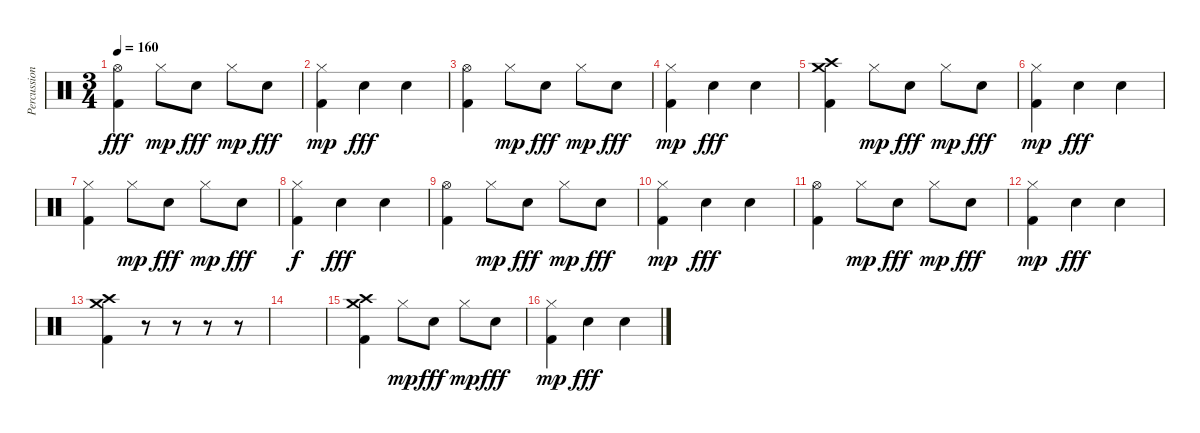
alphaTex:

\track ("Percussion" "Percussion") {solo instrument percussion}
\staff {score}
\articulation defaults
\ts (3 4)
\tempo 160
\clef neutral
\ks c
("Hi-Hat (open)" "Kick (hit) 2").4{dy fff} "Hi-Hat (closed)".8{dy mp} "Electric Snare (hit)".8{dy fff} "Hi-Hat (closed)".8{dy mp} "Electric Snare (hit)".8{dy fff} |
("Hi-Hat (closed)" "Kick (hit) 2").4{dy mp} "Electric Snare (hit)".4{dy fff} "Electric Snare (hit)".4 |
("Hi-Hat (open)" "Kick (hit) 2").4 "Hi-Hat (closed)".8{dy mp} "Electric Snare (hit)".8{dy fff} "Hi-Hat (closed)".8{dy mp} "Electric Snare (hit)".8{dy fff} |
("Hi-Hat (closed)" "Kick (hit) 2").4{dy mp} "Electric Snare (hit)".4{dy fff} "Electric Snare (hit)".4 |
("Crash medium (hit)" "Crash high (hit)" "Kick (hit) 2").4 "Hi-Hat (closed)".8{dy mp} "Electric Snare (hit)".8{dy fff} "Hi-Hat (closed)".8{dy mp} "Electric Snare (hit)".8{dy fff} |
("Hi-Hat (closed)" "Kick (hit) 2").4{dy mp} "Electric Snare (hit)".4{dy fff} "Electric Snare (hit)".4 |
("Hi-Hat (closed)" "Kick (hit) 2").4 "Hi-Hat (closed)".8{dy mp} "Electric Snare (hit)".8{dy fff} "Hi-Hat (closed)".8{dy mp} "Electric Snare (hit)".8{dy fff} |
("Hi-Hat (closed)" "Kick (hit) 2").4{dy f} "Electric Snare (hit)".4{dy fff} "Electric Snare (hit)".4 |
("Hi-Hat (open)" "Kick (hit) 2").4 "Hi-Hat (closed)".8{dy mp} "Electric Snare (hit)".8{dy fff} "Hi-Hat (closed)".8{dy mp} "Electric Snare (hit)".8{dy fff} |
("Hi-Hat (closed)" "Kick (hit) 2").4{dy mp} "Electric Snare (hit)".4{dy fff} "Electric Snare (hit)".4 |
("Hi-Hat (open)" "Kick (hit) 2").4 "Hi-Hat (closed)".8{dy mp} "Electric Snare (hit)".8{dy fff} "Hi-Hat (closed)".8{dy mp} "Electric Snare (hit)".8{dy fff} |
("Hi-Hat (closed)" "Kick (hit) 2").4{dy mp} "Electric Snare (hit)".4{dy fff} "Electric Snare (hit)".4 |
("Crash medium (hit)" "Crash high (hit)" "Kick (hit) 2").4 r.8 r.8 r.8 r.8 |
|
("Crash medium (hit)" "Crash high (hit)" "Kick (hit) 2").4 "Hi-Hat (closed)".8{dy mp} "Electric Snare (hit)".8{dy fff} "Hi-Hat (closed)".8{dy mp} "Electric Snare (hit)".8{dy fff} |
("Hi-Hat (closed)" "Kick (hit) 2").4{dy mp} "Electric Snare (hit)".4{dy fff} "Electric Snare (hit)".4
